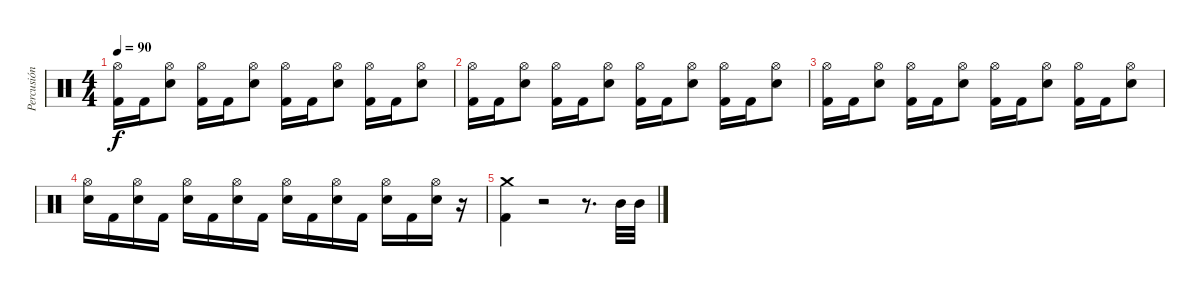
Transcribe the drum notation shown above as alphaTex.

\track ("Percusión" "Percusión") {instrument percussion}
\staff {score}
\articulation defaults
\ts (4 4)
\tempo 90
\clef neutral
\ks c
("Hi-Hat (open)" "Kick (hit) 2").16{dy f} "Kick (hit) 2".16 ("Hi-Hat (open)" "Snare (hit) 2").8 ("Hi-Hat (open)" "Kick (hit) 2").16 "Kick (hit) 2".16 ("Hi-Hat (open)" "Snare (hit) 2").8 ("Hi-Hat (open)" "Kick (hit) 2").16 "Kick (hit) 2".16 ("Hi-Hat (open)" "Snare (hit) 2").8 ("Hi-Hat (open)" "Kick (hit) 2").16 "Kick (hit) 2".16 ("Hi-Hat (open)" "Snare (hit) 2").8 |
("Hi-Hat (open)" "Kick (hit) 2").16 "Kick (hit) 2".16 ("Hi-Hat (open)" "Snare (hit) 2").8 ("Hi-Hat (open)" "Kick (hit) 2").16 "Kick (hit) 2".16 ("Hi-Hat (open)" "Snare (hit) 2").8 ("Hi-Hat (open)" "Kick (hit) 2").16 "Kick (hit) 2".16 ("Hi-Hat (open)" "Snare (hit) 2").8 ("Hi-Hat (open)" "Kick (hit) 2").16 "Kick (hit) 2".16 ("Hi-Hat (open)" "Snare (hit) 2").8 |
("Hi-Hat (open)" "Kick (hit) 2").16 "Kick (hit) 2".16 ("Hi-Hat (open)" "Snare (hit) 2").8 ("Hi-Hat (open)" "Kick (hit) 2").16 "Kick (hit) 2".16 ("Hi-Hat (open)" "Snare (hit) 2").8 ("Hi-Hat (open)" "Kick (hit) 2").16 "Kick (hit) 2".16 ("Hi-Hat (open)" "Snare (hit) 2").8 ("Hi-Hat (open)" "Kick (hit) 2").16 "Kick (hit) 2".16 ("Hi-Hat (open)" "Snare (hit) 2").8 |
("Hi-Hat (open)" "Snare (hit) 2").16 "Kick (hit) 2".16 ("Hi-Hat (open)" "Snare (hit) 2").16 "Kick (hit) 2".16 ("Hi-Hat (open)" "Snare (hit) 2").16 "Kick (hit) 2".16 ("Hi-Hat (open)" "Snare (hit) 2").16 "Kick (hit) 2".16 ("Hi-Hat (open)" "Snare (hit) 2").16 "Kick (hit) 2".16 ("Hi-Hat (open)" "Snare (hit) 2").16 "Kick (hit) 2".16 ("Hi-Hat (open)" "Snare (hit) 2").16 "Kick (hit) 2".16 ("Hi-Hat (open)" "Snare (hit) 2").16 r.16 |
("Crash medium (hit)" "Kick (hit) 2").4 r.2 r.8{d} "Mid Tom (hit)".32 "Mid Tom (hit)".32
